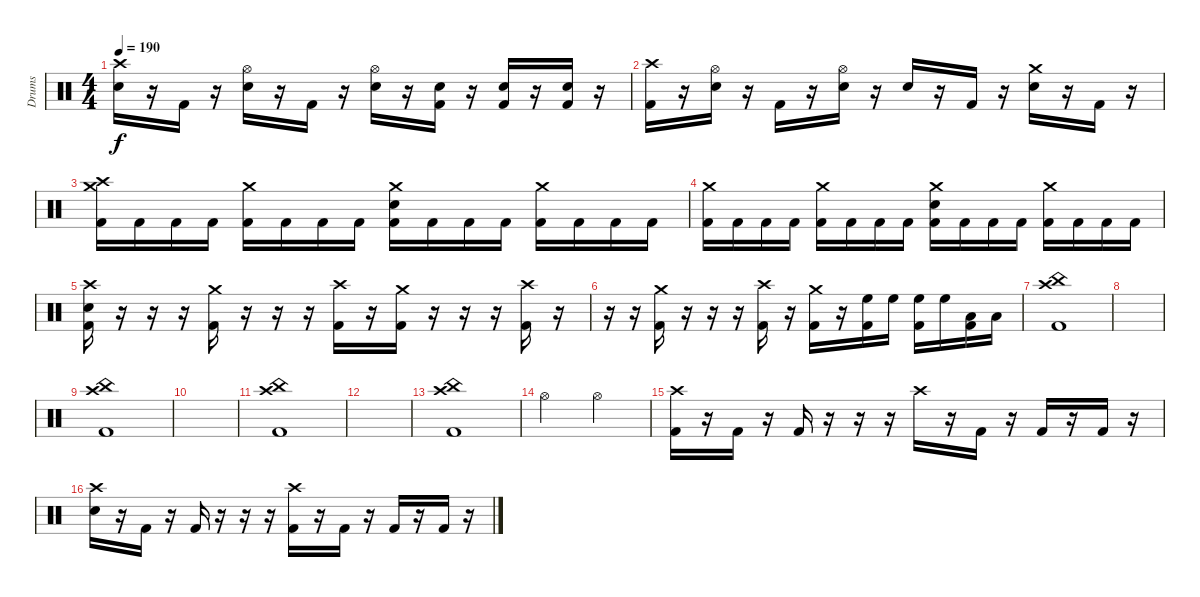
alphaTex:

\track ("Drums" "Drums") {instrument percussion}
\staff {score}
\articulation defaults
\ts (4 4)
\tempo 190
\clef neutral
\ks c
("Crash high (hit)" "Electric Snare (hit)").16{dy f} r.16 "Kick (hit) 2".16 r.16 ("Hi-Hat (open)" "Electric Snare (hit)").16 r.16 "Kick (hit) 2".16 r.16 ("Hi-Hat (open)" "Electric Snare (hit)").16 r.16 ("Electric Snare (hit)" "Kick (hit) 2").16 r.16 ("Electric Snare (hit)" "Kick (hit) 2").16 r.16 ("Electric Snare (hit)" "Kick (hit) 2").16 r.16 |
("Crash high (hit)" "Kick (hit) 2").16 r.16 ("Hi-Hat (open)" "Electric Snare (hit)").16 r.16 "Kick (hit) 2".16 r.16 ("Hi-Hat (open)" "Electric Snare (hit)").16 r.16 "Electric Snare (hit)".16 r.16 "Kick (hit) 2".16 r.16 ("Crash medium (hit)" "Electric Snare (hit)").16 r.16 "Kick (hit) 2".16 r.16 |
("Crash medium (hit)" "Crash high (hit)" "Kick (hit) 2").16 "Kick (hit) 2".16 "Kick (hit) 2".16 "Kick (hit) 2".16 ("Crash medium (hit)" "Kick (hit) 2").16 "Kick (hit) 2".16 "Kick (hit) 2".16 "Kick (hit) 2".16 ("Crash medium (hit)" "Electric Snare (hit)" "Kick (hit) 2").16 "Kick (hit) 2".16 "Kick (hit) 2".16 "Kick (hit) 2".16 ("Crash medium (hit)" "Kick (hit) 2").16 "Kick (hit) 2".16 "Kick (hit) 2".16 "Kick (hit) 2".16 |
("Crash medium (hit)" "Kick (hit) 2").16 "Kick (hit) 2".16 "Kick (hit) 2".16 "Kick (hit) 2".16 ("Crash medium (hit)" "Kick (hit) 2").16 "Kick (hit) 2".16 "Kick (hit) 2".16 "Kick (hit) 2".16 ("Crash medium (hit)" "Electric Snare (hit)" "Kick (hit) 2").16 "Kick (hit) 2".16 "Kick (hit) 2".16 "Kick (hit) 2".16 ("Crash medium (hit)" "Kick (hit) 2").16 "Kick (hit) 2".16 "Kick (hit) 2".16 "Kick (hit) 2".16 |
("Crash high (hit)" "Electric Snare (hit)" "Kick (hit) 2").16 r.16 r.16 r.16 ("Crash medium (hit)" "Kick (hit) 2").16 r.16 r.16 r.16 ("Crash high (hit)" "Kick (hit) 2").16 r.16 ("Crash medium (hit)" "Kick (hit) 2").16 r.16 r.16 r.16 ("Crash high (hit)" "Kick (hit) 2").16 r.16 |
r.16 r.16 ("Crash medium (hit)" "Kick (hit) 2").16 r.16 r.16 r.16 ("Crash high (hit)" "Kick (hit) 2").16 r.16 ("Crash medium (hit)" "Kick (hit) 2").16 r.16 ("High Floor Tom (hit)" "Kick (hit) 2").16 "High Floor Tom (hit)".16 ("High Floor Tom (hit)" "Kick (hit) 2").16 "High Floor Tom (hit)".16 ("Low Tom (hit)" "Kick (hit) 2").16 "Low Tom (hit)".16 |
("Crash high (hit)" "China (hit)" "Kick (hit) 2").1 |
|
("Crash high (hit)" "China (hit)" "Kick (hit) 2").1 |
|
("Crash high (hit)" "China (hit)" "Kick (hit) 2").1 |
|
("Crash high (hit)" "China (hit)" "Kick (hit) 2").1 |
"Hi-Hat (open)".2 "Hi-Hat (open)".2 |
("Crash high (hit)" "Kick (hit) 2").16 r.16 "Kick (hit) 2".16 r.16 "Kick (hit) 2".16 r.16 r.16 r.16 "Crash high (hit)".16 r.16 "Kick (hit) 2".16 r.16 "Kick (hit) 2".16 r.16 "Kick (hit) 2".16 r.16 |
("Crash high (hit)" "Electric Snare (hit)").16 r.16 "Kick (hit) 2".16 r.16 "Kick (hit) 2".16 r.16 r.16 r.16 ("Crash high (hit)" "Kick (hit) 2").16 r.16 "Kick (hit) 2".16 r.16 "Kick (hit) 2".16 r.16 "Kick (hit) 2".16 r.16
